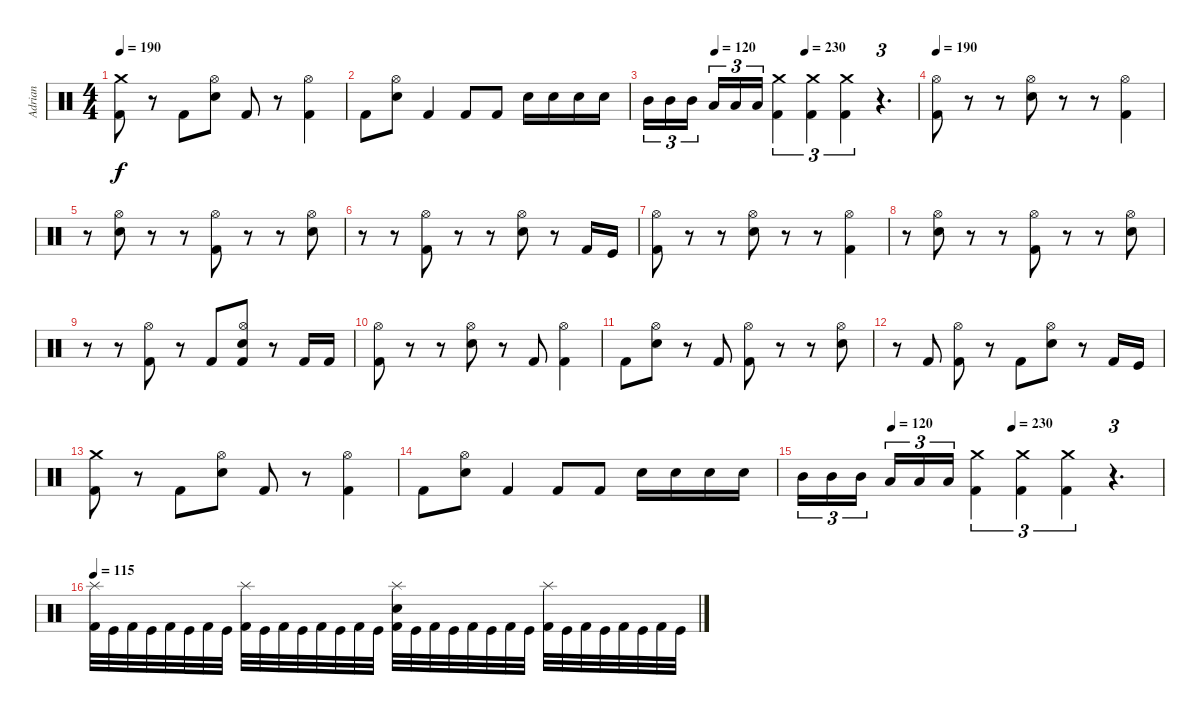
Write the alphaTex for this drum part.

\track ("Adrian" "Adrian") {instrument percussion}
\staff {score}
\articulation defaults
\ts (4 4)
\tempo 190
\clef neutral
\ks c
("Crash medium (hit)" "Kick (hit) 2").8{dy f} r.8 "Kick (hit) 2".8 ("Hi-Hat (open)" "Electric Snare (hit)").8 "Kick (hit) 2".8 r.8 ("Hi-Hat (open)" "Kick (hit) 2").4 |
"Kick (hit) 2".8 ("Hi-Hat (open)" "Electric Snare (hit)").8 "Kick (hit) 2".4 "Kick (hit) 2".8 "Kick (hit) 2".8 "Electric Snare (hit)".16 "Electric Snare (hit)".16 "Electric Snare (hit)".16 "Electric Snare (hit)".16 |
\tempo (120 0.25)
\tempo (230 0.5833333333333334)
"Mid Tom (hit)".16{tu (3 2)} "Mid Tom (hit)".16{tu (3 2)} "Mid Tom (hit)".16{tu (3 2)} "Low Tom (hit)".16{tu (3 2)} "Low Tom (hit)".16{tu (3 2)} "Low Tom (hit)".16{tu (3 2)} ("Crash medium (hit)" "Kick (hit) 2").4{tu (3 2)} ("Crash medium (hit)" "Kick (hit) 2").4{tu (3 2)} ("Crash medium (hit)" "Kick (hit) 2").4{tu (3 2)} r.4{d tu (3 2)} |
\tempo 190
("Hi-Hat (open)" "Kick (hit) 2").8 r.8 r.8 ("Hi-Hat (open)" "Electric Snare (hit)").8 r.8 r.8 ("Hi-Hat (open)" "Kick (hit) 2").4 |
r.8 ("Hi-Hat (open)" "Electric Snare (hit)").8 r.8 r.8 ("Hi-Hat (open)" "Kick (hit) 2").8 r.8 r.8 ("Hi-Hat (open)" "Electric Snare (hit)").8 |
r.8 r.8 ("Hi-Hat (open)" "Kick (hit) 2").8 r.8 r.8 ("Hi-Hat (open)" "Electric Snare (hit)").8 r.8 "Kick (hit) 2".16 "Kick (hit)".16 |
("Hi-Hat (open)" "Kick (hit) 2").8 r.8 r.8 ("Hi-Hat (open)" "Electric Snare (hit)").8 r.8 r.8 ("Hi-Hat (open)" "Kick (hit) 2").4 |
r.8 ("Hi-Hat (open)" "Electric Snare (hit)").8 r.8 r.8 ("Hi-Hat (open)" "Kick (hit) 2").8 r.8 r.8 ("Hi-Hat (open)" "Electric Snare (hit)").8 |
r.8 r.8 ("Hi-Hat (open)" "Kick (hit) 2").8 r.8 "Kick (hit) 2".8 ("Hi-Hat (open)" "Electric Snare (hit)" "Kick (hit) 2").8 r.8 "Kick (hit) 2".16 "Kick (hit) 2".16 |
("Hi-Hat (open)" "Kick (hit) 2").8 r.8 r.8 ("Hi-Hat (open)" "Electric Snare (hit)").8 r.8 "Kick (hit) 2".8 ("Hi-Hat (open)" "Kick (hit) 2").4 |
"Kick (hit) 2".8 ("Hi-Hat (open)" "Electric Snare (hit)").8 r.8 "Kick (hit) 2".8 ("Hi-Hat (open)" "Kick (hit) 2").8 r.8 r.8 ("Hi-Hat (open)" "Electric Snare (hit)").8 |
r.8 "Kick (hit) 2".8 ("Hi-Hat (open)" "Kick (hit) 2").8 r.8 "Kick (hit) 2".8 ("Hi-Hat (open)" "Electric Snare (hit)").8 r.8 "Kick (hit) 2".16 "Kick (hit)".16 |
("Crash medium (hit)" "Kick (hit) 2").8 r.8 "Kick (hit) 2".8 ("Hi-Hat (open)" "Electric Snare (hit)").8 "Kick (hit) 2".8 r.8 ("Hi-Hat (open)" "Kick (hit) 2").4 |
"Kick (hit) 2".8 ("Hi-Hat (open)" "Electric Snare (hit)").8 "Kick (hit) 2".4 "Kick (hit) 2".8 "Kick (hit) 2".8 "Electric Snare (hit)".16 "Electric Snare (hit)".16 "Electric Snare (hit)".16 "Electric Snare (hit)".16 |
\tempo (120 0.25)
\tempo (230 0.5833333333333334)
"Mid Tom (hit)".16{tu (3 2)} "Mid Tom (hit)".16{tu (3 2)} "Mid Tom (hit)".16{tu (3 2)} "Low Tom (hit)".16{tu (3 2)} "Low Tom (hit)".16{tu (3 2)} "Low Tom (hit)".16{tu (3 2)} ("Crash medium (hit)" "Kick (hit) 2").4{tu (3 2)} ("Crash medium (hit)" "Kick (hit) 2").4{tu (3 2)} ("Crash medium (hit)" "Kick (hit) 2").4{tu (3 2)} r.4{d tu (3 2)} |
\tempo 115
("Splash (hit)" "Kick (hit) 2").32 "Kick (hit)".32 "Kick (hit) 2".32 "Kick (hit)".32 "Kick (hit) 2".32 "Kick (hit)".32 "Kick (hit) 2".32 "Kick (hit)".32 ("Splash (hit)" "Kick (hit) 2").32 "Kick (hit)".32 "Kick (hit) 2".32 "Kick (hit)".32 "Kick (hit) 2".32 "Kick (hit)".32 "Kick (hit) 2".32 "Kick (hit)".32 ("Splash (hit)" "Electric Snare (hit)" "Kick (hit) 2").32 "Kick (hit)".32 "Kick (hit) 2".32 "Kick (hit)".32 "Kick (hit) 2".32 "Kick (hit)".32 "Kick (hit) 2".32 "Kick (hit)".32 ("Splash (hit)" "Kick (hit) 2").32 "Kick (hit)".32 "Kick (hit) 2".32 "Kick (hit)".32 "Kick (hit) 2".32 "Kick (hit)".32 "Kick (hit) 2".32 "Kick (hit)".32
